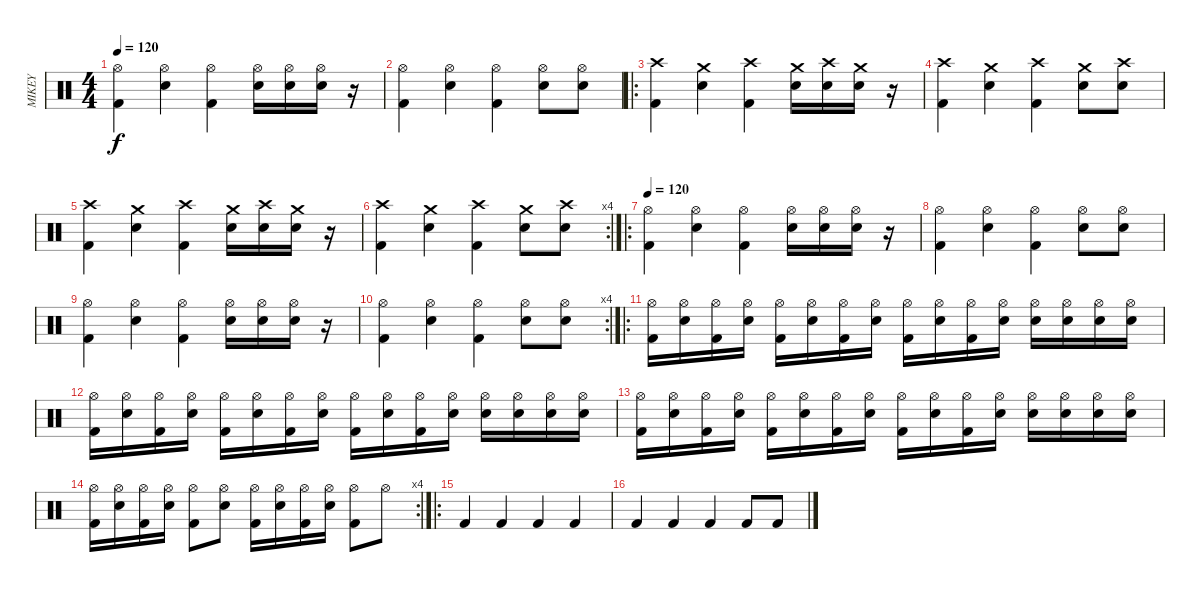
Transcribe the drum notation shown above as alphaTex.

\track ("MIKEY" "MIKEY") {instrument percussion}
\staff {score}
\articulation defaults
\ts (4 4)
\tempo 120
\clef neutral
\ks c
("Hi-Hat (open)" "Kick (hit) 2").4{dy f} ("Hi-Hat (open)" "Electric Snare (hit)").4 ("Hi-Hat (open)" "Kick (hit) 2").4 ("Hi-Hat (open)" "Electric Snare (hit)").16 ("Hi-Hat (open)" "Electric Snare (hit)").16 ("Hi-Hat (open)" "Electric Snare (hit)").16 r.16 |
("Hi-Hat (open)" "Kick (hit) 2").4 ("Hi-Hat (open)" "Electric Snare (hit)").4 ("Hi-Hat (open)" "Kick (hit) 2").4 ("Hi-Hat (open)" "Electric Snare (hit)").8 ("Hi-Hat (open)" "Electric Snare (hit)").8 |
\ro
("Crash high (hit)" "Kick (hit) 2").4 ("Crash medium (hit)" "Electric Snare (hit)").4 ("Crash high (hit)" "Kick (hit) 2").4 ("Crash medium (hit)" "Electric Snare (hit)").16 ("Crash high (hit)" "Electric Snare (hit)").16 ("Crash medium (hit)" "Electric Snare (hit)").16 r.16 |
("Crash high (hit)" "Kick (hit) 2").4 ("Crash medium (hit)" "Electric Snare (hit)").4 ("Crash high (hit)" "Kick (hit) 2").4 ("Crash medium (hit)" "Electric Snare (hit)").8 ("Crash high (hit)" "Electric Snare (hit)").8 |
("Crash high (hit)" "Kick (hit) 2").4 ("Crash medium (hit)" "Electric Snare (hit)").4 ("Crash high (hit)" "Kick (hit) 2").4 ("Crash medium (hit)" "Electric Snare (hit)").16 ("Crash high (hit)" "Electric Snare (hit)").16 ("Crash medium (hit)" "Electric Snare (hit)").16 r.16 |
\rc 4
("Crash high (hit)" "Kick (hit) 2").4 ("Crash medium (hit)" "Electric Snare (hit)").4 ("Crash high (hit)" "Kick (hit) 2").4 ("Crash medium (hit)" "Electric Snare (hit)").8 ("Crash high (hit)" "Electric Snare (hit)").8 |
\ro
\tempo 120
("Hi-Hat (open)" "Kick (hit) 2").4 ("Hi-Hat (open)" "Electric Snare (hit)").4 ("Hi-Hat (open)" "Kick (hit) 2").4 ("Hi-Hat (open)" "Electric Snare (hit)").16 ("Hi-Hat (open)" "Electric Snare (hit)").16 ("Hi-Hat (open)" "Electric Snare (hit)").16 r.16 |
("Hi-Hat (open)" "Kick (hit) 2").4 ("Hi-Hat (open)" "Electric Snare (hit)").4 ("Hi-Hat (open)" "Kick (hit) 2").4 ("Hi-Hat (open)" "Electric Snare (hit)").8 ("Hi-Hat (open)" "Electric Snare (hit)").8 |
("Hi-Hat (open)" "Kick (hit) 2").4 ("Hi-Hat (open)" "Electric Snare (hit)").4 ("Hi-Hat (open)" "Kick (hit) 2").4 ("Hi-Hat (open)" "Electric Snare (hit)").16 ("Hi-Hat (open)" "Electric Snare (hit)").16 ("Hi-Hat (open)" "Electric Snare (hit)").16 r.16 |
\rc 4
("Hi-Hat (open)" "Kick (hit) 2").4 ("Hi-Hat (open)" "Electric Snare (hit)").4 ("Hi-Hat (open)" "Kick (hit) 2").4 ("Hi-Hat (open)" "Electric Snare (hit)").8 ("Hi-Hat (open)" "Electric Snare (hit)").8 |
\ro
("Hi-Hat (open)" "Kick (hit) 2").16 ("Hi-Hat (open)" "Electric Snare (hit)").16 ("Hi-Hat (open)" "Kick (hit) 2").16 ("Hi-Hat (open)" "Electric Snare (hit)").16 ("Hi-Hat (open)" "Kick (hit) 2").16 ("Hi-Hat (open)" "Electric Snare (hit)").16 ("Hi-Hat (open)" "Kick (hit) 2").16 ("Hi-Hat (open)" "Electric Snare (hit)").16 ("Hi-Hat (open)" "Kick (hit) 2").16 ("Hi-Hat (open)" "Electric Snare (hit)").16 ("Hi-Hat (open)" "Kick (hit) 2").16 ("Hi-Hat (open)" "Electric Snare (hit)").16 ("Hi-Hat (open)" "Electric Snare (hit)").16 ("Hi-Hat (open)" "Electric Snare (hit)").16 ("Hi-Hat (open)" "Electric Snare (hit)").16 ("Hi-Hat (open)" "Electric Snare (hit)").16 |
("Hi-Hat (open)" "Kick (hit) 2").16 ("Hi-Hat (open)" "Electric Snare (hit)").16 ("Hi-Hat (open)" "Kick (hit) 2").16 ("Hi-Hat (open)" "Electric Snare (hit)").16 ("Hi-Hat (open)" "Kick (hit) 2").16 ("Hi-Hat (open)" "Electric Snare (hit)").16 ("Hi-Hat (open)" "Kick (hit) 2").16 ("Hi-Hat (open)" "Electric Snare (hit)").16 ("Hi-Hat (open)" "Kick (hit) 2").16 ("Hi-Hat (open)" "Electric Snare (hit)").16 ("Hi-Hat (open)" "Kick (hit) 2").16 ("Hi-Hat (open)" "Electric Snare (hit)").16 ("Hi-Hat (open)" "Electric Snare (hit)").16 ("Hi-Hat (open)" "Electric Snare (hit)").16 ("Hi-Hat (open)" "Electric Snare (hit)").16 ("Hi-Hat (open)" "Electric Snare (hit)").16 |
("Hi-Hat (open)" "Kick (hit) 2").16 ("Hi-Hat (open)" "Electric Snare (hit)").16 ("Hi-Hat (open)" "Kick (hit) 2").16 ("Hi-Hat (open)" "Electric Snare (hit)").16 ("Hi-Hat (open)" "Kick (hit) 2").16 ("Hi-Hat (open)" "Electric Snare (hit)").16 ("Hi-Hat (open)" "Kick (hit) 2").16 ("Hi-Hat (open)" "Electric Snare (hit)").16 ("Hi-Hat (open)" "Kick (hit) 2").16 ("Hi-Hat (open)" "Electric Snare (hit)").16 ("Hi-Hat (open)" "Kick (hit) 2").16 ("Hi-Hat (open)" "Electric Snare (hit)").16 ("Hi-Hat (open)" "Electric Snare (hit)").16 ("Hi-Hat (open)" "Electric Snare (hit)").16 ("Hi-Hat (open)" "Electric Snare (hit)").16 ("Hi-Hat (open)" "Electric Snare (hit)").16 |
\rc 4
("Hi-Hat (open)" "Kick (hit) 2").16 ("Hi-Hat (open)" "Electric Snare (hit)").16 ("Hi-Hat (open)" "Kick (hit) 2").16 ("Hi-Hat (open)" "Electric Snare (hit)").16 ("Hi-Hat (open)" "Kick (hit) 2").8 ("Hi-Hat (open)" "Electric Snare (hit)").8 ("Hi-Hat (open)" "Kick (hit) 2").16 ("Hi-Hat (open)" "Electric Snare (hit)").16 ("Hi-Hat (open)" "Kick (hit) 2").16 ("Hi-Hat (open)" "Electric Snare (hit)").16 ("Hi-Hat (open)" "Kick (hit) 2").8 "Hi-Hat (open)".8 |
\ro "Kick (hit) 2".4 "Kick (hit) 2".4 "Kick (hit) 2".4 "Kick (hit) 2".4
|
"Kick (hit) 2".4 "Kick (hit) 2".4 "Kick (hit) 2".4 "Kick (hit) 2".8 "Kick (hit) 2".8
